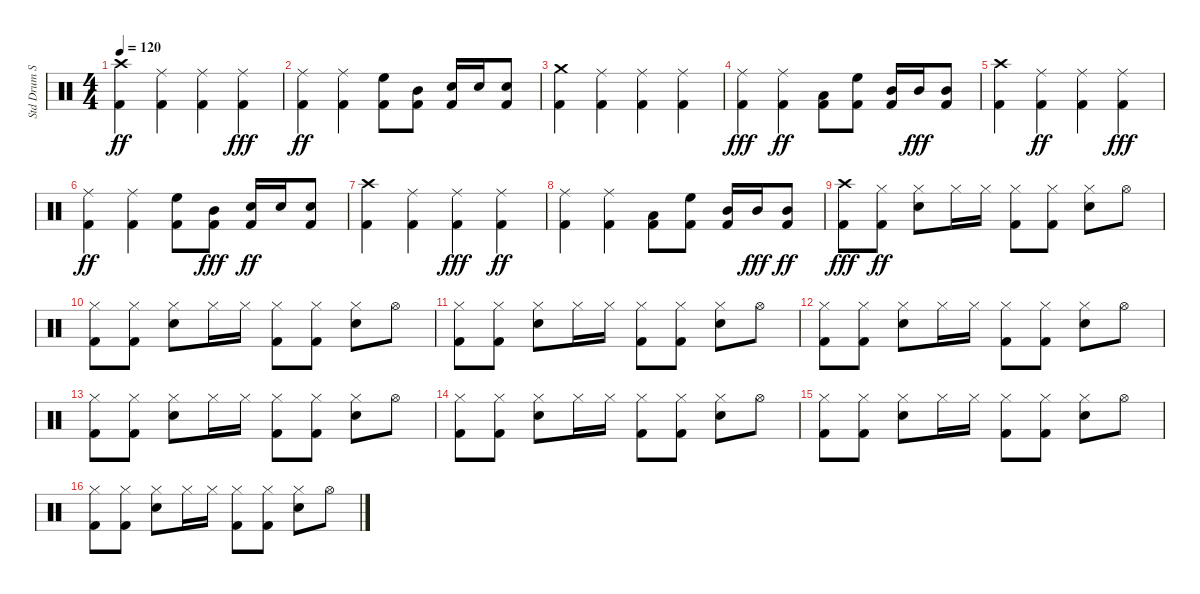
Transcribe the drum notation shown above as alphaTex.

\track ("Std Drum Set 1" "Std Drum S") {instrument percussion}
\staff {score}
\articulation defaults
\ts (4 4)
\tempo 120
\clef neutral
\ks c
("Crash high (hit)" "Kick (hit) 2").4{dy ff} ("Ride (middle)" "Kick (hit) 2").4 ("Ride (middle)" "Kick (hit) 2").4 ("Kick (hit) 2" "Ride (middle)").4{dy fff} |
("Ride (middle)" "Kick (hit) 2").4{dy ff} ("Ride (middle)" "Kick (hit) 2").4 ("High Floor Tom (hit)" "Kick (hit) 2").8 ("Mid Tom (hit)" "Kick (hit) 2").8 ("Snare (hit) 2" "Kick (hit) 2").16 "Snare (hit) 2".16 ("Snare (hit) 2" "Kick (hit) 2").8 |
("Crash medium (hit)" "Kick (hit) 2").4 ("Ride (middle)" "Kick (hit) 2").4 ("Ride (middle)" "Kick (hit) 2").4 ("Ride (middle)" "Kick (hit) 2").4 |
("Kick (hit) 2" "Ride (middle)").4{dy fff} ("Ride (middle)" "Kick (hit) 2").4{dy ff} ("Low Tom (hit)" "Kick (hit) 2").8 ("High Floor Tom (hit)" "Kick (hit) 2").8 ("Mid Tom (hit)" "Kick (hit) 2").16 "Mid Tom (hit)".16{dy fff} ("Kick (hit) 2" "Mid Tom (hit)").8 |
("Kick (hit) 2" "Crash high (hit)").4 ("Ride (middle)" "Kick (hit) 2").4{dy ff} ("Ride (middle)" "Kick (hit) 2").4 ("Kick (hit) 2" "Ride (middle)").4{dy fff} |
("Ride (middle)" "Kick (hit) 2").4{dy ff} ("Ride (middle)" "Kick (hit) 2").4 ("High Floor Tom (hit)" "Kick (hit) 2").8 ("Kick (hit) 2" "Mid Tom (hit)").8{dy fff} ("Snare (hit) 2" "Kick (hit) 2").16{dy ff} "Snare (hit) 2".16 ("Kick (hit) 2" "Snare (hit) 2").8 |
("Crash high (hit)" "Kick (hit) 2").4 ("Ride (middle)" "Kick (hit) 2").4 ("Kick (hit) 2" "Ride (middle)").4{dy fff} ("Ride (middle)" "Kick (hit) 2").4{dy ff} |
("Ride (middle)" "Kick (hit) 2").4 ("Ride (middle)" "Kick (hit) 2").4 ("Low Tom (hit)" "Kick (hit) 2").8 ("High Floor Tom (hit)" "Kick (hit) 2").8 ("Mid Tom (hit)" "Kick (hit) 2").16 "Mid Tom (hit)".16{dy fff} ("Mid Tom (hit)" "Kick (hit) 2").8{dy ff} |
("Kick (hit) 2" "Crash high (hit)").8{dy fff} ("Kick (hit) 2" "Hi-Hat (closed)").8{dy ff} ("Snare (hit) 2" "Hi-Hat (closed)").8 "Hi-Hat (closed)".16 "Hi-Hat (closed)".16 ("Kick (hit) 2" "Hi-Hat (closed)").8 ("Hi-Hat (closed)" "Kick (hit) 2").8 ("Hi-Hat (closed)" "Snare (hit) 2").8 "Hi-Hat (open)".8 |
("Hi-Hat (closed)" "Kick (hit) 2").8 ("Kick (hit) 2" "Hi-Hat (closed)").8 ("Snare (hit) 2" "Hi-Hat (closed)").8 "Hi-Hat (closed)".16 "Hi-Hat (closed)".16 ("Kick (hit) 2" "Hi-Hat (closed)").8 ("Hi-Hat (closed)" "Kick (hit) 2").8 ("Hi-Hat (closed)" "Snare (hit) 2").8 "Hi-Hat (open)".8 |
("Hi-Hat (closed)" "Kick (hit) 2").8 ("Kick (hit) 2" "Hi-Hat (closed)").8 ("Snare (hit) 2" "Hi-Hat (closed)").8 "Hi-Hat (closed)".16 "Hi-Hat (closed)".16 ("Kick (hit) 2" "Hi-Hat (closed)").8 ("Hi-Hat (closed)" "Kick (hit) 2").8 ("Hi-Hat (closed)" "Snare (hit) 2").8 "Hi-Hat (open)".8 |
("Hi-Hat (closed)" "Kick (hit) 2").8 ("Hi-Hat (closed)" "Kick (hit) 2").8 ("Hi-Hat (closed)" "Snare (hit) 2").8 "Hi-Hat (closed)".16 "Hi-Hat (closed)".16 ("Hi-Hat (closed)" "Kick (hit) 2").8 ("Hi-Hat (closed)" "Kick (hit) 2").8 ("Hi-Hat (closed)" "Snare (hit) 2").8 "Hi-Hat (open)".8 |
("Hi-Hat (closed)" "Kick (hit) 2").8 ("Hi-Hat (closed)" "Kick (hit) 2").8 ("Snare (hit) 2" "Hi-Hat (closed)").8 "Hi-Hat (closed)".16 "Hi-Hat (closed)".16 ("Kick (hit) 2" "Hi-Hat (closed)").8 ("Hi-Hat (closed)" "Kick (hit) 2").8 ("Hi-Hat (closed)" "Snare (hit) 2").8 "Hi-Hat (open)".8 |
("Hi-Hat (closed)" "Kick (hit) 2").8 ("Hi-Hat (closed)" "Kick (hit) 2").8 ("Hi-Hat (closed)" "Snare (hit) 2").8 "Hi-Hat (closed)".16 "Hi-Hat (closed)".16 ("Hi-Hat (closed)" "Kick (hit) 2").8 ("Kick (hit) 2" "Hi-Hat (closed)").8 ("Hi-Hat (closed)" "Snare (hit) 2").8 "Hi-Hat (open)".8 |
("Hi-Hat (closed)" "Kick (hit) 2").8 ("Hi-Hat (closed)" "Kick (hit) 2").8 ("Hi-Hat (closed)" "Snare (hit) 2").8 "Hi-Hat (closed)".16 "Hi-Hat (closed)".16 ("Kick (hit) 2" "Hi-Hat (closed)").8 ("Kick (hit) 2" "Hi-Hat (closed)").8 ("Snare (hit) 2" "Hi-Hat (closed)").8 "Hi-Hat (open)".8 |
("Kick (hit) 2" "Hi-Hat (closed)").8 ("Hi-Hat (closed)" "Kick (hit) 2").8 ("Snare (hit) 2" "Hi-Hat (closed)").8 "Hi-Hat (closed)".16 "Hi-Hat (closed)".16 ("Hi-Hat (closed)" "Kick (hit) 2").8 ("Hi-Hat (closed)" "Kick (hit) 2").8 ("Hi-Hat (closed)" "Snare (hit) 2").8 "Hi-Hat (open)".8
